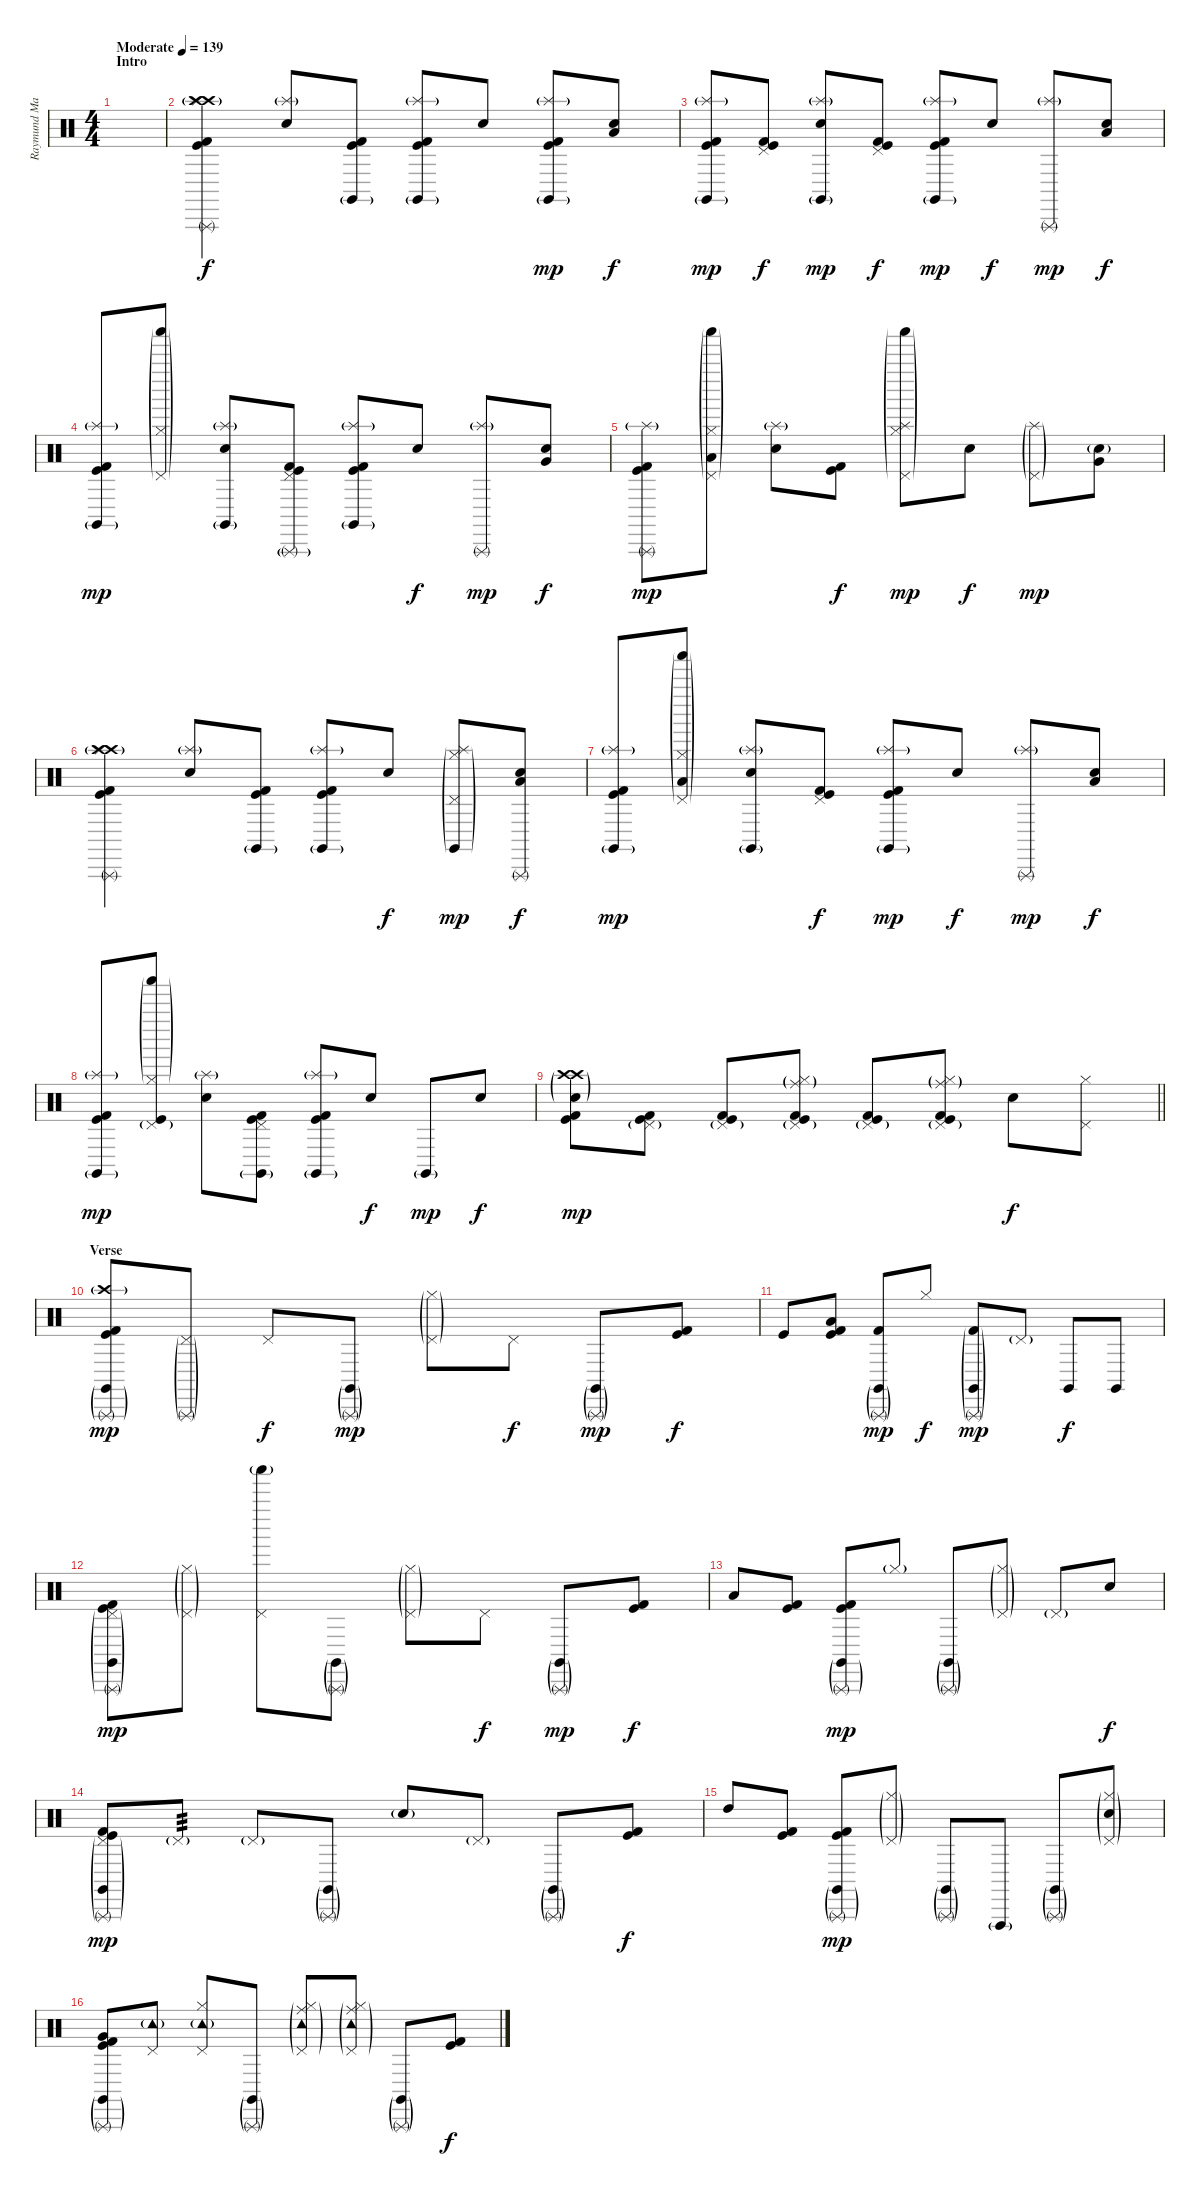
\track ("Raymund Marasigan(Drums)" "Raymund Ma") {instrument percussion}
\staff {score}
\articulation defaults
\ts (4 4)
\section ("" "Intro")
\tempo (139 "Moderate")
\clef neutral
\ks c
|
("Crash high (hit)"{g} "Crash high (hit)"{g} "Kick (hit) 2" "Kick (hit)" "Triangle (rnute)" "Splash (hit)"{g}).4 ("Electric Snare (hit)" "Splash (hit)"{g}).8 ("Kick (hit) 2" "Kick (hit)" "Claves (hit)"{g}).8 ("Kick (hit) 2" "Kick (hit)" "Splash (hit)"{g} "Claves (hit)"{g}).8 "Electric Snare (hit)".8{dy f} ("Kick (hit) 2" "Kick (hit)" "Splash (hit)"{g} "Claves (hit)"{g}).8{dy mp} ("Electric Snare (hit)" "Low Tom (hit)").8{dy f} |
("Kick (hit) 2" "Kick (hit)" "Splash (hit)"{g} "Claves (hit)"{g}).8{dy mp} ("Kick (hit) 2" "Kick (hit)" "Pedal Hi-Hat (hit)").8{dy f} ("Electric Snare (hit)" "Splash (hit)"{g} "Claves (hit)"{g}).8{dy mp} ("Kick (hit) 2" "Kick (hit)" "Pedal Hi-Hat (hit)").8{dy f} ("Kick (hit) 2" "Kick (hit)" "Splash (hit)"{g} "Claves (hit)"{g}).8{dy mp} "Electric Snare (hit)".8{dy f} ("Splash (hit)"{g} "Triangle (rnute)").8{dy mp} ("Electric Snare (hit)" "Low Tom (hit)").8{dy f} |
("Kick (hit) 2" "Kick (hit)" "Splash (hit)"{g} "Claves (hit)"{g}).8{dy mp} ("Shaker (hit)"{g} "Pedal Hi-Hat (hit)"{g} "Hi-Hat (closed)"{g}).8 ("Electric Snare (hit)" "Splash (hit)"{g} "Claves (hit)"{g}).8 ("Kick (hit) 2" "Kick (hit)" "Pedal Hi-Hat (hit)" "Triangle (rnute)"{g}).8 ("Kick (hit) 2" "Kick (hit)" "Splash (hit)"{g} "Claves (hit)"{g}).8 "Electric Snare (hit)".8{dy f} ("Splash (hit)"{g} "Triangle (rnute)").8{dy mp} ("Electric Snare (hit)" "Very Low Tom (hit)").8{dy f} |
("Kick (hit) 2" "Kick (hit)" "Splash (hit)"{g} "Triangle (rnute)").8{dy mp} ("Shaker (hit)"{g} "Pedal Hi-Hat (hit)"{g} "Hi-Hat (closed)"{g} "Low Tom (hit)"{g}).8 ("Electric Snare (hit)" "Splash (hit)"{g}).8 ("Kick (hit) 2" "Kick (hit)").8{dy f} ("Shaker (hit)"{g} "Pedal Hi-Hat (hit)"{g} "Hi-Hat (closed)"{g} "Splash (hit)"{g}).8{dy mp} "Electric Snare (hit)".8{dy f} ("Pedal Hi-Hat (hit)"{g} "Splash (hit)"{g}).8{dy mp} ("Electric Snare (hit)"{g} "Very Low Tom (hit)").8 |
("Crash high (hit)"{g} "Crash high (hit)"{g} "Kick (hit) 2" "Kick (hit)" "Triangle (rnute)" "Splash (hit)"{g}).4 ("Electric Snare (hit)" "Splash (hit)"{g}).8 ("Kick (hit) 2" "Kick (hit)" "Claves (hit)"{g}).8 ("Kick (hit) 2" "Kick (hit)" "Splash (hit)"{g} "Claves (hit)"{g}).8 "Electric Snare (hit)".8{dy f} ("Pedal Hi-Hat (hit)"{g} "Hi-Hat (closed)"{g} "Splash (hit)"{g} "Claves (hit)"{g}).8{dy mp} ("Electric Snare (hit)" "Low Tom (hit)" "Triangle (rnute)").8{dy f} |
("Kick (hit) 2" "Kick (hit)" "Splash (hit)"{g} "Claves (hit)"{g}).8{dy mp} ("Shaker (hit)"{g} "Pedal Hi-Hat (hit)"{g} "Hi-Hat (closed)"{g} "Low Tom (hit)"{g}).8 ("Electric Snare (hit)" "Splash (hit)"{g} "Claves (hit)"{g}).8 ("Kick (hit) 2" "Kick (hit)" "Pedal Hi-Hat (hit)").8{dy f} ("Kick (hit) 2" "Kick (hit)" "Splash (hit)"{g} "Claves (hit)"{g}).8{dy mp} "Electric Snare (hit)".8{dy f} ("Splash (hit)"{g} "Triangle (rnute)").8{dy mp} ("Electric Snare (hit)" "Low Tom (hit)").8{dy f} |
("Kick (hit) 2" "Kick (hit)" "Splash (hit)"{g} "Claves (hit)"{g}).8{dy mp} ("Shaker (hit)"{g} "Pedal Hi-Hat (hit)"{g} "Hi-Hat (closed)"{g} "Kick (hit)").8 ("Electric Snare (hit)" "Splash (hit)"{g}).8 ("Kick (hit) 2" "Kick (hit)" "Pedal Hi-Hat (hit)" "Claves (hit)"{g}).8 ("Kick (hit) 2" "Kick (hit)" "Splash (hit)"{g} "Claves (hit)"{g}).8 "Electric Snare (hit)".8{dy f} "Claves (hit)"{g}.8{dy mp} "Electric Snare (hit)".8{dy f} |
\barLineRight lightlight
("Crash high (hit)"{g} "Crash high (hit)"{g} "Kick (hit) 2" "Kick (hit)" "Electric Snare (hit)"{g}).8{dy mp} ("Kick (hit) 2" "Kick (hit)" "Pedal Hi-Hat (hit)"{g}).8 ("Kick (hit) 2" "Kick (hit)" "Pedal Hi-Hat (hit)"{g}).8 ("Kick (hit) 2" "Kick (hit)" "Pedal Hi-Hat (hit)"{g} "Hi-Hat (closed)"{g} "Ride (middle)"{g}).8 ("Kick (hit) 2" "Kick (hit)" "Pedal Hi-Hat (hit)"{g}).8 ("Kick (hit) 2" "Kick (hit)" "Pedal Hi-Hat (hit)"{g} "Hi-Hat (closed)"{g} "Ride (middle)"{g}).8 "Electric Snare (hit)".8{dy f} ("Pedal Hi-Hat (hit)" "Hi-Hat (closed)").8 |
\section ("" "Verse ")
("Crash high (hit)"{g} "Kick (hit) 2" "Kick (hit)" "Triangle (rnute)"{g} "Claves (hit)"{g}).8{dy mp} ("Pedal Hi-Hat (hit)"{g} "Triangle (rnute)"{g}).8 "Pedal Hi-Hat (hit)".8{dy f} ("Triangle (rnute)"{g} "Claves (hit)"{g}).8{dy mp} ("Pedal Hi-Hat (hit)"{g} "Hi-Hat (closed)"{g}).8 "Pedal Hi-Hat (hit)".8{dy f} ("Triangle (rnute)"{g} "Claves (hit)"{g}).8{dy mp} ("Kick (hit) 2" "Kick (hit)").8{dy f} |
"Kick (hit)".8 ("Low Floor Tom (hit)" "Kick (hit) 2" "Kick (hit)").8 ("Triangle (rnute)"{g} "Claves (hit)"{g} "Kick (hit) 2").8{dy mp} "Hi-Hat (closed)".8{dy f} ("Triangle (rnute)"{g} "Claves (hit)"{g} "Kick (hit) 2"{g}).8{dy mp} "Pedal Hi-Hat (hit)"{g}.8 "Claves (hit)".8{dy f} "Claves (hit)".8 |
("Pedal Hi-Hat (hit)"{g} "Kick (hit) 2" "Kick (hit)" "Triangle (rnute)"{g} "Claves (hit)"{g}).8{dy mp} ("Pedal Hi-Hat (hit)"{g} "Hi-Hat (closed)"{g}).8 ("Pedal Hi-Hat (hit)" "Shaker (hit)"{g}).8 ("Triangle (rnute)"{g} "Claves (hit)"{g}).8 ("Pedal Hi-Hat (hit)"{g} "Hi-Hat (closed)"{g}).8 "Pedal Hi-Hat (hit)".8{dy f} ("Triangle (rnute)"{g} "Claves (hit)"{g}).8{dy mp} ("Kick (hit) 2" "Kick (hit)").8{dy f} |
"Low Floor Tom (hit)".8 ("Kick (hit) 2" "Kick (hit)").8 ("Kick (hit) 2" "Kick (hit)" "Triangle (rnute)"{g} "Claves (hit)"{g}).8{dy mp} "Hi-Hat (closed)"{g}.8 ("Triangle (rnute)"{g} "Claves (hit)"{g}).8 ("Pedal Hi-Hat (hit)"{g} "Hi-Hat (closed)"{g}).8 "Pedal Hi-Hat (hit)"{g}.8 "Electric Snare (hit)".8{dy f} |
("Pedal Hi-Hat (hit)"{g} "Kick (hit) 2" "Kick (hit)" "Triangle (rnute)"{g} "Claves (hit)"{g}).8{dy mp} "Pedal Hi-Hat (hit)"{g}.8{tp 3} "Pedal Hi-Hat (hit)"{g}.8 ("Triangle (rnute)"{g} "Claves (hit)"{g}).8 "Electric Snare (hit)"{g}.8 "Pedal Hi-Hat (hit)"{g}.8 ("Triangle (rnute)"{g} "Claves (hit)"{g}).8 ("Kick (hit) 2" "Kick (hit)").8{dy f} |
"High Tom (hit)".8 ("Kick (hit) 2" "Kick (hit)").8 ("Kick (hit) 2" "Kick (hit)" "Triangle (rnute)"{g} "Claves (hit)"{g}).8{bd 30 dy mp} ("Pedal Hi-Hat (hit)"{g} "Hi-Hat (closed)"{g}).8 ("Triangle (rnute)"{g} "Claves (hit)"{g}).8 "Vibraslap (hit)"{g}.8 ("Triangle (rnute)"{g} "Claves (hit)"{g}).8 ("Pedal Hi-Hat (hit)"{g} "Hi-Hat (closed)"{g} "Electric Snare (hit)"{g}).8 |
("Kick (hit) 2" "Kick (hit)" "Very Low Tom (hit)" "Triangle (rnute)"{g} "Claves (hit)"{g}).8 ("Pedal Hi-Hat (hit)" "Tambourine (hit)"{g}).8 ("Pedal Hi-Hat (hit)" "Tambourine (hit)"{g} "Hi-Hat (closed)").8 ("Triangle (rnute)"{g} "Claves (hit)"{g}).8 ("Pedal Hi-Hat (hit)"{g} "Tambourine (hit)"{g} "Hi-Hat (closed)"{g} "Ride (middle)"{g}).8 ("Pedal Hi-Hat (hit)"{g} "Tambourine (hit)"{g} "Hi-Hat (closed)"{g} "Ride (middle)"{g}).8 ("Triangle (rnute)"{g} "Claves (hit)"{g}).8 ("Kick (hit) 2" "Kick (hit)").8{dy f}
